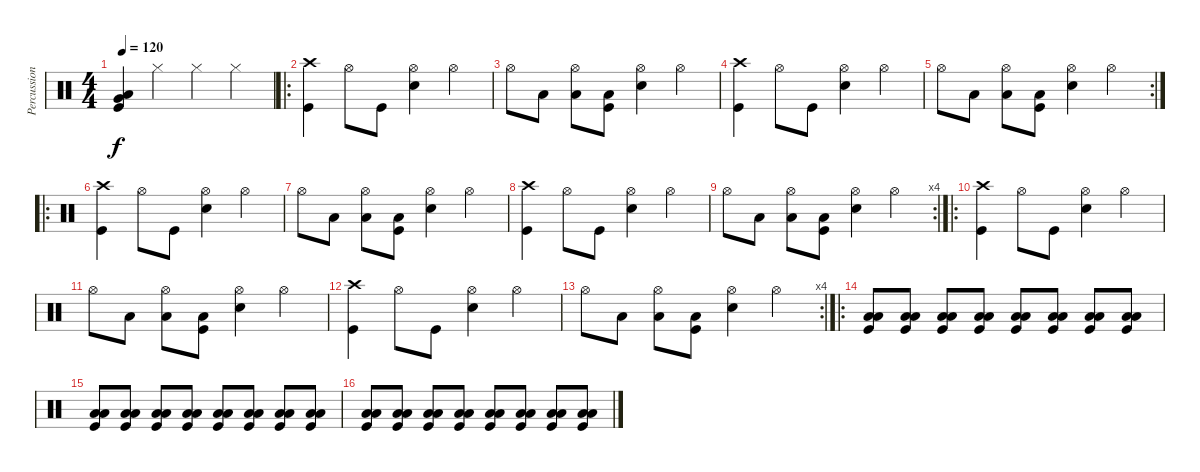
\track ("Percussion" "Percussion") {instrument percussion}
\staff {score}
\articulation defaults
\ts (4 4)
\tempo 120
\clef neutral
\ks c
("Kick (hit)" "Very Low Tom (hit)" "Low Tom (hit)").4{dy f} "Hi-Hat (closed)".4 "Hi-Hat (closed)".4 "Hi-Hat (closed)".4 |
\ro
("Kick (hit)" "Crash high (hit)").4 "Hi-Hat (open)".8 "Kick (hit)".8 ("Snare (hit) 2" "Hi-Hat (open)").4 "Hi-Hat (open)".4 |
"Hi-Hat (open)".8 "Low Floor Tom (hit)".8 ("Low Floor Tom (hit)" "Hi-Hat (open)").8 ("Kick (hit)" "Low Floor Tom (hit)").8 ("Snare (hit) 2" "Hi-Hat (open)").4 "Hi-Hat (open)".4 |
("Kick (hit)" "Crash high (hit)").4 "Hi-Hat (open)".8 "Kick (hit)".8 ("Snare (hit) 2" "Hi-Hat (open)").4 "Hi-Hat (open)".4 |
\rc 2 "Hi-Hat (open)".8 "Low Floor Tom (hit)".8
("Low Floor Tom (hit)" "Hi-Hat (open)").8 ("Kick (hit)" "Low Floor Tom (hit)").8 ("Snare (hit) 2" "Hi-Hat (open)").4 "Hi-Hat (open)".4 |
\ro
("Kick (hit)" "Crash high (hit)").4 "Hi-Hat (open)".8 "Kick (hit)".8 ("Snare (hit) 2" "Hi-Hat (open)").4 "Hi-Hat (open)".4 |
"Hi-Hat (open)".8 "Low Floor Tom (hit)".8 ("Low Floor Tom (hit)" "Hi-Hat (open)").8 ("Kick (hit)" "Low Floor Tom (hit)").8 ("Snare (hit) 2" "Hi-Hat (open)").4 "Hi-Hat (open)".4 |
("Kick (hit)" "Crash high (hit)").4 "Hi-Hat (open)".8 "Kick (hit)".8 ("Snare (hit) 2" "Hi-Hat (open)").4 "Hi-Hat (open)".4 |
\rc 4 "Hi-Hat (open)".8 "Low Floor Tom (hit)".8
("Low Floor Tom (hit)" "Hi-Hat (open)").8 ("Kick (hit)" "Low Floor Tom (hit)").8 ("Snare (hit) 2" "Hi-Hat (open)").4 "Hi-Hat (open)".4 |
\ro
("Kick (hit)" "Crash high (hit)").4 "Hi-Hat (open)".8 "Kick (hit)".8 ("Snare (hit) 2" "Hi-Hat (open)").4 "Hi-Hat (open)".4 |
"Hi-Hat (open)".8 "Low Floor Tom (hit)".8 ("Low Floor Tom (hit)" "Hi-Hat (open)").8 ("Kick (hit)" "Low Floor Tom (hit)").8 ("Snare (hit) 2" "Hi-Hat (open)").4 "Hi-Hat (open)".4 |
("Kick (hit)" "Crash high (hit)").4 "Hi-Hat (open)".8 "Kick (hit)".8 ("Snare (hit) 2" "Hi-Hat (open)").4 "Hi-Hat (open)".4 |
\rc 4 "Hi-Hat (open)".8 "Low Floor Tom (hit)".8
("Low Floor Tom (hit)" "Hi-Hat (open)").8 ("Kick (hit)" "Low Floor Tom (hit)").8 ("Snare (hit) 2" "Hi-Hat (open)").4 "Hi-Hat (open)".4 |
\ro
("Kick (hit)" "Low Floor Tom (hit)" "Low Floor Tom (hit)").8 ("Kick (hit)" "Low Floor Tom (hit)" "Low Floor Tom (hit)").8 ("Kick (hit)" "Low Floor Tom (hit)" "Low Floor Tom (hit)").8 ("Kick (hit)" "Low Floor Tom (hit)" "Low Floor Tom (hit)").8 ("Kick (hit)" "Low Floor Tom (hit)" "Low Floor Tom (hit)").8 ("Kick (hit)" "Low Floor Tom (hit)" "Low Floor Tom (hit)").8 ("Kick (hit)" "Low Floor Tom (hit)" "Low Floor Tom (hit)").8 ("Kick (hit)" "Low Floor Tom (hit)" "Low Floor Tom (hit)").8 |
("Kick (hit)" "Low Floor Tom (hit)" "Low Floor Tom (hit)").8 ("Kick (hit)" "Low Floor Tom (hit)" "Low Floor Tom (hit)").8 ("Kick (hit)" "Low Floor Tom (hit)" "Low Floor Tom (hit)").8 ("Kick (hit)" "Low Floor Tom (hit)" "Low Floor Tom (hit)").8 ("Kick (hit)" "Low Floor Tom (hit)" "Low Floor Tom (hit)").8 ("Kick (hit)" "Low Floor Tom (hit)" "Low Floor Tom (hit)").8 ("Kick (hit)" "Low Floor Tom (hit)" "Low Floor Tom (hit)").8 ("Kick (hit)" "Low Floor Tom (hit)" "Low Floor Tom (hit)").8 |
("Kick (hit)" "Low Floor Tom (hit)" "Low Floor Tom (hit)").8 ("Kick (hit)" "Low Floor Tom (hit)" "Low Floor Tom (hit)").8 ("Kick (hit)" "Low Floor Tom (hit)" "Low Floor Tom (hit)").8 ("Kick (hit)" "Low Floor Tom (hit)" "Low Floor Tom (hit)").8 ("Kick (hit)" "Low Floor Tom (hit)" "Low Floor Tom (hit)").8 ("Kick (hit)" "Low Floor Tom (hit)" "Low Floor Tom (hit)").8 ("Kick (hit)" "Low Floor Tom (hit)" "Low Floor Tom (hit)").8 ("Kick (hit)" "Low Floor Tom (hit)" "Low Floor Tom (hit)").8
